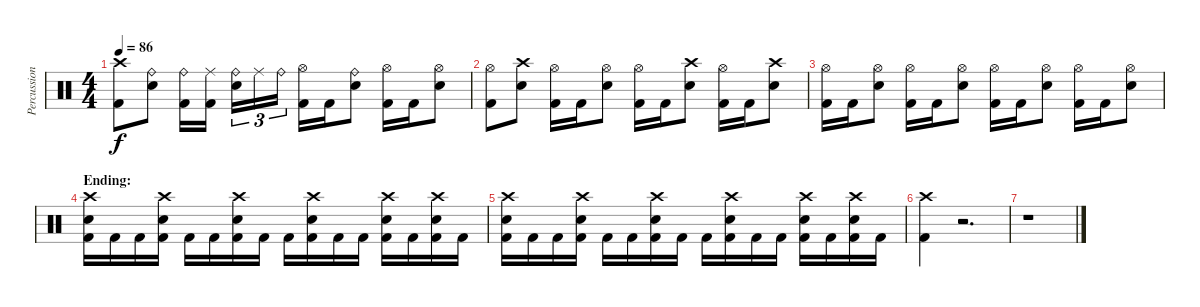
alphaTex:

\track ("Percussion" "Percussion") {instrument percussion}
\staff {score}
\articulation defaults
\ts (4 4)
\tempo 86
\clef neutral
\ks c
("Crash high (hit)" "Kick (hit) 2").8{dy f} ("Ride (bell)" "Electric Snare (hit)").8 ("Ride (bell)" "Kick (hit) 2").16 ("Ride (middle)" "Kick (hit) 2").16 ("Ride (bell)" "Electric Snare (hit)").16{tu (3 2)} "Ride (middle)".16{tu (3 2)} "Ride (bell)".16{tu (3 2)} ("Hi-Hat (open)" "Kick (hit) 2").16 "Kick (hit) 2".16 ("Ride (bell)" "Electric Snare (hit)").8 ("Hi-Hat (open)" "Kick (hit) 2").16 "Kick (hit) 2".16 ("Hi-Hat (open)" "Electric Snare (hit)").8 |
("Hi-Hat (open)" "Kick (hit) 2").8 ("Crash high (hit)" "Electric Snare (hit)").8 ("Hi-Hat (open)" "Kick (hit) 2").16 "Kick (hit) 2".16 ("Hi-Hat (open)" "Electric Snare (hit)").8 ("Hi-Hat (open)" "Kick (hit) 2").16 "Kick (hit) 2".16 ("Crash high (hit)" "Electric Snare (hit)").8 ("Hi-Hat (open)" "Kick (hit) 2").16 "Kick (hit) 2".16 ("Crash high (hit)" "Electric Snare (hit)").8 |
("Hi-Hat (open)" "Kick (hit) 2").16 "Kick (hit) 2".16 ("Hi-Hat (open)" "Electric Snare (hit)").8 ("Hi-Hat (open)" "Kick (hit) 2").16 "Kick (hit) 2".16 ("Hi-Hat (open)" "Electric Snare (hit)").8 ("Hi-Hat (open)" "Kick (hit) 2").16 "Kick (hit) 2".16 ("Hi-Hat (open)" "Electric Snare (hit)").8 ("Hi-Hat (open)" "Kick (hit) 2").16 "Kick (hit) 2".16 ("Hi-Hat (open)" "Electric Snare (hit)").8 |
\section ("" "Ending:")
("Crash high (hit)" "Electric Snare (hit)" "Kick (hit) 2").16 "Kick (hit) 2".16 "Kick (hit) 2".16 ("Crash high (hit)" "Electric Snare (hit)" "Kick (hit) 2").16 "Kick (hit) 2".16 "Kick (hit) 2".16 ("Crash high (hit)" "Electric Snare (hit)" "Kick (hit) 2").16 "Kick (hit) 2".16 "Kick (hit) 2".16 ("Crash high (hit)" "Electric Snare (hit)" "Kick (hit) 2").16 "Kick (hit) 2".16 "Kick (hit) 2".16 ("Crash high (hit)" "Electric Snare (hit)" "Kick (hit) 2").16 "Kick (hit) 2".16 ("Crash high (hit)" "Electric Snare (hit)" "Kick (hit) 2").16 "Kick (hit) 2".16 |
("Crash high (hit)" "Electric Snare (hit)" "Kick (hit) 2").16 "Kick (hit) 2".16 "Kick (hit) 2".16 ("Crash high (hit)" "Electric Snare (hit)" "Kick (hit) 2").16 "Kick (hit) 2".16 "Kick (hit) 2".16 ("Crash high (hit)" "Electric Snare (hit)" "Kick (hit) 2").16 "Kick (hit) 2".16 "Kick (hit) 2".16 ("Crash high (hit)" "Electric Snare (hit)" "Kick (hit) 2").16 "Kick (hit) 2".16 "Kick (hit) 2".16 ("Crash high (hit)" "Electric Snare (hit)" "Kick (hit) 2").16 "Kick (hit) 2".16 ("Crash high (hit)" "Electric Snare (hit)" "Kick (hit) 2").16 "Kick (hit) 2".16 |
("Crash high (hit)" "Kick (hit) 2").4 r.2{d} |
r.1
